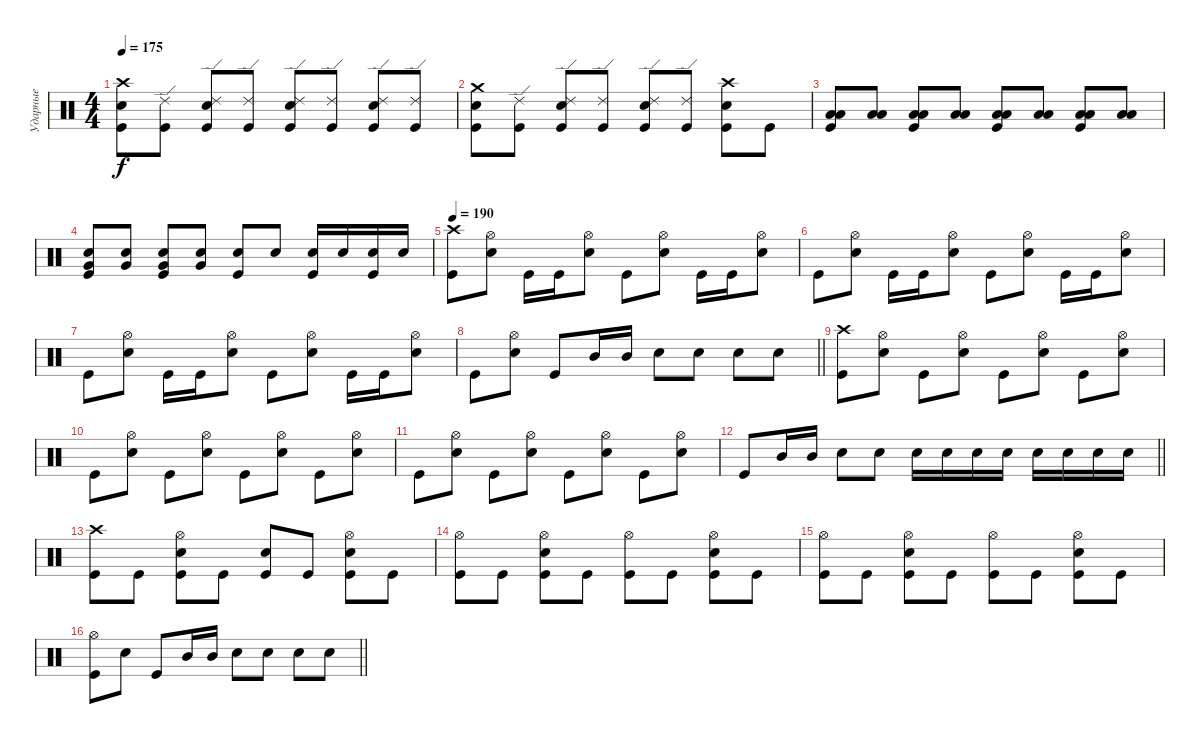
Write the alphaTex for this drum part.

\track ("Ударные" "Ударные") {instrument percussion}
\staff {score}
\articulation defaults
\ts (4 4)
\tempo 175
\clef neutral
\ks c
("Crash high (hit)" "Snare (hit) 2" "Kick (hit)").8{dy f} ("Ride (edge) 2" "Kick (hit)").8 ("Ride (edge) 2" "Snare (hit) 2" "Kick (hit)").8 ("Ride (edge) 2" "Kick (hit)").8 ("Ride (edge) 2" "Snare (hit) 2" "Kick (hit)").8 ("Ride (edge) 2" "Kick (hit)").8 ("Ride (edge) 2" "Snare (hit) 2" "Kick (hit)").8 ("Ride (edge) 2" "Kick (hit)").8 |
("Crash medium (hit)" "Snare (hit) 2" "Kick (hit)").8 ("Ride (edge) 2" "Kick (hit)").8 ("Ride (edge) 2" "Snare (hit) 2" "Kick (hit)").8 ("Ride (edge) 2" "Kick (hit)").8 ("Ride (edge) 2" "Snare (hit) 2" "Kick (hit)").8 ("Ride (edge) 2" "Kick (hit)").8 ("Crash high (hit)" "Snare (hit) 2" "Kick (hit)").8 "Kick (hit)".8 |
("Low Tom (hit)" "Low Floor Tom (hit)" "Kick (hit)").8 ("Low Tom (hit)" "Low Floor Tom (hit)").8 ("Low Tom (hit)" "Low Floor Tom (hit)" "Kick (hit)").8 ("Low Tom (hit)" "Low Floor Tom (hit)").8 ("Low Tom (hit)" "Low Floor Tom (hit)" "Kick (hit)").8 ("Low Tom (hit)" "Low Floor Tom (hit)").8 ("Low Tom (hit)" "Low Floor Tom (hit)" "Kick (hit)").8 ("Low Tom (hit)" "Low Floor Tom (hit)").8 |
("Snare (hit) 2" "Very Low Tom (hit)" "Kick (hit)").8 ("Snare (hit) 2" "Very Low Tom (hit)").8 ("Snare (hit) 2" "Very Low Tom (hit)" "Kick (hit)").8 ("Snare (hit) 2" "Very Low Tom (hit)").8 ("Snare (hit) 2" "Kick (hit)").8 "Snare (hit) 2".8 ("Snare (hit) 2" "Kick (hit)").16 "Snare (hit) 2".16 ("Snare (hit) 2" "Kick (hit)").16 "Snare (hit) 2".16 |
\tempo 190
("Crash high (hit)" "Kick (hit)").8 ("Hi-Hat (open)" "Snare (hit) 2").8 "Kick (hit)".16 "Kick (hit)".16 ("Hi-Hat (open)" "Snare (hit) 2").8 "Kick (hit)".8 ("Hi-Hat (open)" "Snare (hit) 2").8 "Kick (hit)".16 "Kick (hit)".16 ("Hi-Hat (open)" "Snare (hit) 2").8 |
"Kick (hit)".8 ("Hi-Hat (open)" "Snare (hit) 2").8 "Kick (hit)".16 "Kick (hit)".16 ("Hi-Hat (open)" "Snare (hit) 2").8 "Kick (hit)".8 ("Hi-Hat (open)" "Snare (hit) 2").8 "Kick (hit)".16 "Kick (hit)".16 ("Hi-Hat (open)" "Snare (hit) 2").8 |
"Kick (hit)".8 ("Hi-Hat (open)" "Snare (hit) 2").8 "Kick (hit)".16 "Kick (hit)".16 ("Hi-Hat (open)" "Snare (hit) 2").8 "Kick (hit)".8 ("Hi-Hat (open)" "Snare (hit) 2").8 "Kick (hit)".16 "Kick (hit)".16 ("Hi-Hat (open)" "Snare (hit) 2").8 |
\barLineRight lightlight "Kick (hit)".8
("Hi-Hat (open)" "Snare (hit) 2").8 "Kick (hit)".8 "Mid Tom (hit)".16 "Mid Tom (hit)".16 "Snare (hit) 2".8 "Snare (hit) 2".8 "Snare (hit) 2".8 "Snare (hit) 2".8 |
("Crash high (hit)" "Kick (hit)").8 ("Hi-Hat (open)" "Snare (hit) 2").8 "Kick (hit)".8 ("Hi-Hat (open)" "Snare (hit) 2").8 "Kick (hit)".8 ("Hi-Hat (open)" "Snare (hit) 2").8 "Kick (hit)".8 ("Hi-Hat (open)" "Snare (hit) 2").8 |
"Kick (hit)".8 ("Hi-Hat (open)" "Snare (hit) 2").8 "Kick (hit)".8 ("Hi-Hat (open)" "Snare (hit) 2").8 "Kick (hit)".8 ("Hi-Hat (open)" "Snare (hit) 2").8 "Kick (hit)".8 ("Hi-Hat (open)" "Snare (hit) 2").8 |
"Kick (hit)".8 ("Hi-Hat (open)" "Snare (hit) 2").8 "Kick (hit)".8 ("Hi-Hat (open)" "Snare (hit) 2").8 "Kick (hit)".8 ("Hi-Hat (open)" "Snare (hit) 2").8 "Kick (hit)".8 ("Hi-Hat (open)" "Snare (hit) 2").8 |
\barLineRight lightlight "Kick (hit)".8 "Mid Tom (hit)".16 "Mid Tom (hit)".16 "Snare (hit) 2".8 "Snare (hit) 2".8 "Snare (hit) 2".16 "Snare (hit) 2".16 "Snare (hit) 2".16 "Snare (hit) 2".16 "Snare (hit) 2".16 "Snare (hit) 2".16 "Snare (hit) 2".16 "Snare (hit) 2".16
|
("Crash high (hit)" "Kick (hit)").8 "Kick (hit)".8 ("Hi-Hat (open)" "Snare (hit) 2" "Kick (hit)").8 "Kick (hit)".8 ("Snare (hit) 2" "Kick (hit)").8 "Kick (hit)".8 ("Hi-Hat (open)" "Snare (hit) 2" "Kick (hit)").8 "Kick (hit)".8 |
("Hi-Hat (open)" "Kick (hit)").8 "Kick (hit)".8 ("Hi-Hat (open)" "Snare (hit) 2" "Kick (hit)").8 "Kick (hit)".8 ("Hi-Hat (open)" "Kick (hit)").8 "Kick (hit)".8 ("Hi-Hat (open)" "Snare (hit) 2" "Kick (hit)").8 "Kick (hit)".8 |
("Hi-Hat (open)" "Kick (hit)").8 "Kick (hit)".8 ("Hi-Hat (open)" "Snare (hit) 2" "Kick (hit)").8 "Kick (hit)".8 ("Hi-Hat (open)" "Kick (hit)").8 "Kick (hit)".8 ("Hi-Hat (open)" "Snare (hit) 2" "Kick (hit)").8 "Kick (hit)".8 |
\barLineRight lightlight
("Hi-Hat (open)" "Kick (hit)").8 "Snare (hit) 2".8 "Kick (hit)".8 "Mid Tom (hit)".16 "Mid Tom (hit)".16 "Snare (hit) 2".8 "Snare (hit) 2".8 "Snare (hit) 2".8 "Snare (hit) 2".8
